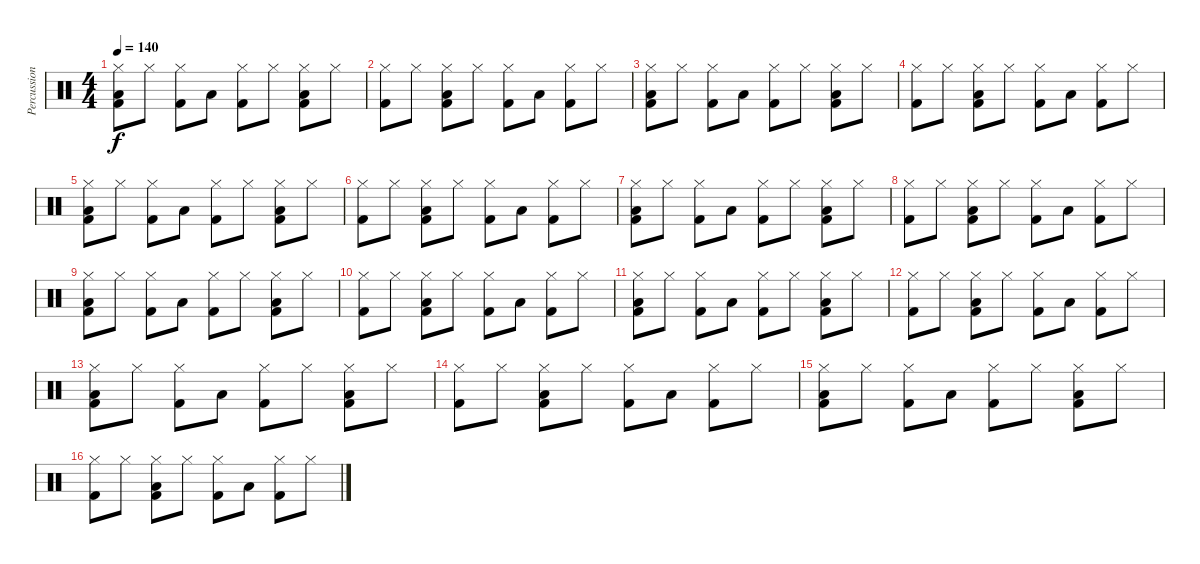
\track ("Percussion" "Percussion") {instrument percussion}
\staff {score}
\articulation defaults
\ts (4 4)
\section ("" "")
\tempo 140
\clef neutral
\ks c
("Hi-Hat (closed)" "Low Floor Tom (hit)" "Kick (hit) 2").8{dy f} "Hi-Hat (closed)".8 ("Hi-Hat (closed)" "Kick (hit) 2").8 "Low Floor Tom (hit)".8 ("Hi-Hat (closed)" "Kick (hit) 2").8 "Hi-Hat (closed)".8 ("Hi-Hat (closed)" "Low Floor Tom (hit)" "Kick (hit) 2").8 "Hi-Hat (closed)".8 |
("Hi-Hat (closed)" "Kick (hit) 2").8 "Hi-Hat (closed)".8 ("Hi-Hat (closed)" "Low Floor Tom (hit)" "Kick (hit) 2").8 "Hi-Hat (closed)".8 ("Hi-Hat (closed)" "Kick (hit) 2").8 "Low Floor Tom (hit)".8 ("Hi-Hat (closed)" "Kick (hit) 2").8 "Hi-Hat (closed)".8 |
("Hi-Hat (closed)" "Low Floor Tom (hit)" "Kick (hit) 2").8 "Hi-Hat (closed)".8 ("Hi-Hat (closed)" "Kick (hit) 2").8 "Low Floor Tom (hit)".8 ("Hi-Hat (closed)" "Kick (hit) 2").8 "Hi-Hat (closed)".8 ("Hi-Hat (closed)" "Low Floor Tom (hit)" "Kick (hit) 2").8 "Hi-Hat (closed)".8 |
("Hi-Hat (closed)" "Kick (hit) 2").8 "Hi-Hat (closed)".8 ("Hi-Hat (closed)" "Low Floor Tom (hit)" "Kick (hit) 2").8 "Hi-Hat (closed)".8 ("Hi-Hat (closed)" "Kick (hit) 2").8 "Low Floor Tom (hit)".8 ("Hi-Hat (closed)" "Kick (hit) 2").8 "Hi-Hat (closed)".8 |
("Hi-Hat (closed)" "Low Floor Tom (hit)" "Kick (hit) 2").8 "Hi-Hat (closed)".8 ("Hi-Hat (closed)" "Kick (hit) 2").8 "Low Floor Tom (hit)".8 ("Hi-Hat (closed)" "Kick (hit) 2").8 "Hi-Hat (closed)".8 ("Hi-Hat (closed)" "Low Floor Tom (hit)" "Kick (hit) 2").8 "Hi-Hat (closed)".8 |
("Hi-Hat (closed)" "Kick (hit) 2").8 "Hi-Hat (closed)".8 ("Hi-Hat (closed)" "Low Floor Tom (hit)" "Kick (hit) 2").8 "Hi-Hat (closed)".8 ("Hi-Hat (closed)" "Kick (hit) 2").8 "Low Floor Tom (hit)".8 ("Hi-Hat (closed)" "Kick (hit) 2").8 "Hi-Hat (closed)".8 |
("Hi-Hat (closed)" "Low Floor Tom (hit)" "Kick (hit) 2").8 "Hi-Hat (closed)".8 ("Hi-Hat (closed)" "Kick (hit) 2").8 "Low Floor Tom (hit)".8 ("Hi-Hat (closed)" "Kick (hit) 2").8 "Hi-Hat (closed)".8 ("Hi-Hat (closed)" "Low Floor Tom (hit)" "Kick (hit) 2").8 "Hi-Hat (closed)".8 |
("Hi-Hat (closed)" "Kick (hit) 2").8 "Hi-Hat (closed)".8 ("Hi-Hat (closed)" "Low Floor Tom (hit)" "Kick (hit) 2").8 "Hi-Hat (closed)".8 ("Hi-Hat (closed)" "Kick (hit) 2").8 "Low Floor Tom (hit)".8 ("Hi-Hat (closed)" "Kick (hit) 2").8 "Hi-Hat (closed)".8 |
("Hi-Hat (closed)" "Low Floor Tom (hit)" "Kick (hit) 2").8 "Hi-Hat (closed)".8 ("Hi-Hat (closed)" "Kick (hit) 2").8 "Low Floor Tom (hit)".8 ("Hi-Hat (closed)" "Kick (hit) 2").8 "Hi-Hat (closed)".8 ("Hi-Hat (closed)" "Low Floor Tom (hit)" "Kick (hit) 2").8 "Hi-Hat (closed)".8 |
("Hi-Hat (closed)" "Kick (hit) 2").8 "Hi-Hat (closed)".8 ("Hi-Hat (closed)" "Low Floor Tom (hit)" "Kick (hit) 2").8 "Hi-Hat (closed)".8 ("Hi-Hat (closed)" "Kick (hit) 2").8 "Low Floor Tom (hit)".8 ("Hi-Hat (closed)" "Kick (hit) 2").8 "Hi-Hat (closed)".8 |
("Hi-Hat (closed)" "Low Floor Tom (hit)" "Kick (hit) 2").8 "Hi-Hat (closed)".8 ("Hi-Hat (closed)" "Kick (hit) 2").8 "Low Floor Tom (hit)".8 ("Hi-Hat (closed)" "Kick (hit) 2").8 "Hi-Hat (closed)".8 ("Hi-Hat (closed)" "Low Floor Tom (hit)" "Kick (hit) 2").8 "Hi-Hat (closed)".8 |
("Hi-Hat (closed)" "Kick (hit) 2").8 "Hi-Hat (closed)".8 ("Hi-Hat (closed)" "Low Floor Tom (hit)" "Kick (hit) 2").8 "Hi-Hat (closed)".8 ("Hi-Hat (closed)" "Kick (hit) 2").8 "Low Floor Tom (hit)".8 ("Hi-Hat (closed)" "Kick (hit) 2").8 "Hi-Hat (closed)".8 |
("Hi-Hat (closed)" "Low Floor Tom (hit)" "Kick (hit) 2").8 "Hi-Hat (closed)".8 ("Hi-Hat (closed)" "Kick (hit) 2").8 "Low Floor Tom (hit)".8 ("Hi-Hat (closed)" "Kick (hit) 2").8 "Hi-Hat (closed)".8 ("Hi-Hat (closed)" "Low Floor Tom (hit)" "Kick (hit) 2").8 "Hi-Hat (closed)".8 |
("Hi-Hat (closed)" "Kick (hit) 2").8 "Hi-Hat (closed)".8 ("Hi-Hat (closed)" "Low Floor Tom (hit)" "Kick (hit) 2").8 "Hi-Hat (closed)".8 ("Hi-Hat (closed)" "Kick (hit) 2").8 "Low Floor Tom (hit)".8 ("Hi-Hat (closed)" "Kick (hit) 2").8 "Hi-Hat (closed)".8 |
("Hi-Hat (closed)" "Low Floor Tom (hit)" "Kick (hit) 2").8 "Hi-Hat (closed)".8 ("Hi-Hat (closed)" "Kick (hit) 2").8 "Low Floor Tom (hit)".8 ("Hi-Hat (closed)" "Kick (hit) 2").8 "Hi-Hat (closed)".8 ("Hi-Hat (closed)" "Low Floor Tom (hit)" "Kick (hit) 2").8 "Hi-Hat (closed)".8 |
("Hi-Hat (closed)" "Kick (hit) 2").8 "Hi-Hat (closed)".8 ("Hi-Hat (closed)" "Low Floor Tom (hit)" "Kick (hit) 2").8 "Hi-Hat (closed)".8 ("Hi-Hat (closed)" "Kick (hit) 2").8 "Low Floor Tom (hit)".8 ("Hi-Hat (closed)" "Kick (hit) 2").8 "Hi-Hat (closed)".8
